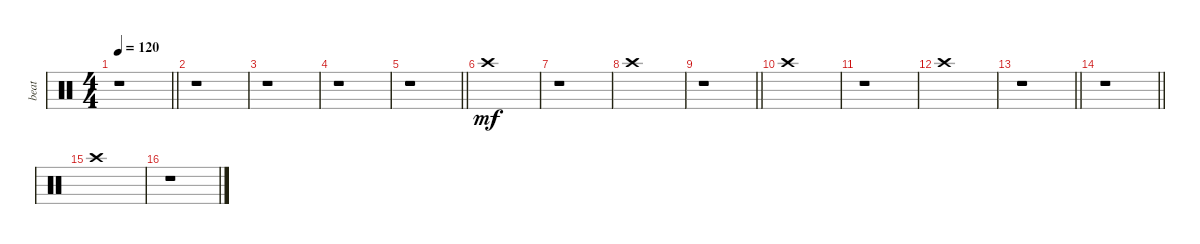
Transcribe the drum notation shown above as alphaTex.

\track ("beat" "beat") {instrument percussion}
\staff {score}
\articulation defaults
\ts (4 4)
\tempo 120
\clef neutral
\barLineRight lightlight
\ks c
r.1{dy mf} |
r.1 |
r.1 |
r.1 |
\barLineRight lightlight
r.1 |
"Crash high (hit)".1 |
r.1 |
"Crash high (hit)".1 |
\barLineRight lightlight
r.1 |
"Crash high (hit)".1 |
r.1 |
"Crash high (hit)".1 |
\barLineRight lightlight
r.1 |
\barLineRight lightlight
r.1 |
"Crash high (hit)".1 |
r.1
